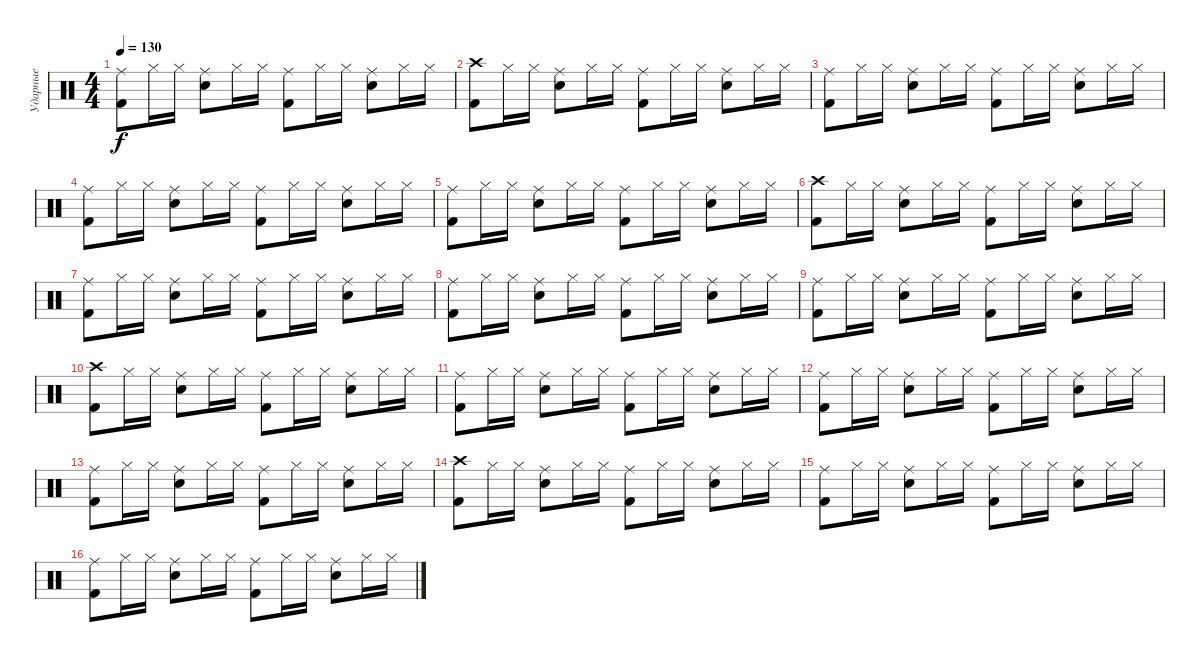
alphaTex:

\track ("Ударные" "Ударные") {instrument percussion}
\staff {score}
\articulation defaults
\ts (4 4)
\tempo 130
\clef neutral
\ks c
("Ride (middle)" "Kick (hit) 2").8{dy f} "Hi-Hat (closed)".16 "Hi-Hat (closed)".16 ("Ride (middle)" "Electric Snare (hit)").8 "Hi-Hat (closed)".16 "Hi-Hat (closed)".16 ("Ride (middle)" "Kick (hit) 2").8 "Hi-Hat (closed)".16 "Hi-Hat (closed)".16 ("Ride (middle)" "Electric Snare (hit)").8 "Hi-Hat (closed)".16 "Hi-Hat (closed)".16 |
("Crash high (hit)" "Kick (hit) 2").8 "Hi-Hat (closed)".16 "Hi-Hat (closed)".16 ("Ride (middle)" "Electric Snare (hit)").8 "Hi-Hat (closed)".16 "Hi-Hat (closed)".16 ("Ride (middle)" "Kick (hit) 2").8 "Hi-Hat (closed)".16 "Hi-Hat (closed)".16 ("Ride (middle)" "Electric Snare (hit)").8 "Hi-Hat (closed)".16 "Hi-Hat (closed)".16 |
("Ride (middle)" "Kick (hit) 2").8 "Hi-Hat (closed)".16 "Hi-Hat (closed)".16 ("Ride (middle)" "Electric Snare (hit)").8 "Hi-Hat (closed)".16 "Hi-Hat (closed)".16 ("Ride (middle)" "Kick (hit) 2").8 "Hi-Hat (closed)".16 "Hi-Hat (closed)".16 ("Ride (middle)" "Electric Snare (hit)").8 "Hi-Hat (closed)".16 "Hi-Hat (closed)".16 |
("Ride (middle)" "Kick (hit) 2").8 "Hi-Hat (closed)".16 "Hi-Hat (closed)".16 ("Ride (middle)" "Electric Snare (hit)").8 "Hi-Hat (closed)".16 "Hi-Hat (closed)".16 ("Ride (middle)" "Kick (hit) 2").8 "Hi-Hat (closed)".16 "Hi-Hat (closed)".16 ("Ride (middle)" "Electric Snare (hit)").8 "Hi-Hat (closed)".16 "Hi-Hat (closed)".16 |
("Ride (middle)" "Kick (hit) 2").8 "Hi-Hat (closed)".16 "Hi-Hat (closed)".16 ("Ride (middle)" "Electric Snare (hit)").8 "Hi-Hat (closed)".16 "Hi-Hat (closed)".16 ("Ride (middle)" "Kick (hit) 2").8 "Hi-Hat (closed)".16 "Hi-Hat (closed)".16 ("Ride (middle)" "Electric Snare (hit)").8 "Hi-Hat (closed)".16 "Hi-Hat (closed)".16 |
("Crash high (hit)" "Kick (hit) 2").8 "Hi-Hat (closed)".16 "Hi-Hat (closed)".16 ("Ride (middle)" "Electric Snare (hit)").8 "Hi-Hat (closed)".16 "Hi-Hat (closed)".16 ("Ride (middle)" "Kick (hit) 2").8 "Hi-Hat (closed)".16 "Hi-Hat (closed)".16 ("Ride (middle)" "Electric Snare (hit)").8 "Hi-Hat (closed)".16 "Hi-Hat (closed)".16 |
("Ride (middle)" "Kick (hit) 2").8 "Hi-Hat (closed)".16 "Hi-Hat (closed)".16 ("Ride (middle)" "Electric Snare (hit)").8 "Hi-Hat (closed)".16 "Hi-Hat (closed)".16 ("Ride (middle)" "Kick (hit) 2").8 "Hi-Hat (closed)".16 "Hi-Hat (closed)".16 ("Ride (middle)" "Electric Snare (hit)").8 "Hi-Hat (closed)".16 "Hi-Hat (closed)".16 |
("Ride (middle)" "Kick (hit) 2").8 "Hi-Hat (closed)".16 "Hi-Hat (closed)".16 ("Ride (middle)" "Electric Snare (hit)").8 "Hi-Hat (closed)".16 "Hi-Hat (closed)".16 ("Ride (middle)" "Kick (hit) 2").8 "Hi-Hat (closed)".16 "Hi-Hat (closed)".16 ("Ride (middle)" "Electric Snare (hit)").8 "Hi-Hat (closed)".16 "Hi-Hat (closed)".16 |
("Ride (middle)" "Kick (hit) 2").8 "Hi-Hat (closed)".16 "Hi-Hat (closed)".16 ("Ride (middle)" "Electric Snare (hit)").8 "Hi-Hat (closed)".16 "Hi-Hat (closed)".16 ("Ride (middle)" "Kick (hit) 2").8 "Hi-Hat (closed)".16 "Hi-Hat (closed)".16 ("Ride (middle)" "Electric Snare (hit)").8 "Hi-Hat (closed)".16 "Hi-Hat (closed)".16 |
("Crash high (hit)" "Kick (hit) 2").8 "Hi-Hat (closed)".16 "Hi-Hat (closed)".16 ("Ride (middle)" "Electric Snare (hit)").8 "Hi-Hat (closed)".16 "Hi-Hat (closed)".16 ("Ride (middle)" "Kick (hit) 2").8 "Hi-Hat (closed)".16 "Hi-Hat (closed)".16 ("Ride (middle)" "Electric Snare (hit)").8 "Hi-Hat (closed)".16 "Hi-Hat (closed)".16 |
("Ride (middle)" "Kick (hit) 2").8 "Hi-Hat (closed)".16 "Hi-Hat (closed)".16 ("Ride (middle)" "Electric Snare (hit)").8 "Hi-Hat (closed)".16 "Hi-Hat (closed)".16 ("Ride (middle)" "Kick (hit) 2").8 "Hi-Hat (closed)".16 "Hi-Hat (closed)".16 ("Ride (middle)" "Electric Snare (hit)").8 "Hi-Hat (closed)".16 "Hi-Hat (closed)".16 |
("Ride (middle)" "Kick (hit) 2").8 "Hi-Hat (closed)".16 "Hi-Hat (closed)".16 ("Ride (middle)" "Electric Snare (hit)").8 "Hi-Hat (closed)".16 "Hi-Hat (closed)".16 ("Ride (middle)" "Kick (hit) 2").8 "Hi-Hat (closed)".16 "Hi-Hat (closed)".16 ("Ride (middle)" "Electric Snare (hit)").8 "Hi-Hat (closed)".16 "Hi-Hat (closed)".16 |
("Ride (middle)" "Kick (hit) 2").8 "Hi-Hat (closed)".16 "Hi-Hat (closed)".16 ("Ride (middle)" "Electric Snare (hit)").8 "Hi-Hat (closed)".16 "Hi-Hat (closed)".16 ("Ride (middle)" "Kick (hit) 2").8 "Hi-Hat (closed)".16 "Hi-Hat (closed)".16 ("Ride (middle)" "Electric Snare (hit)").8 "Hi-Hat (closed)".16 "Hi-Hat (closed)".16 |
("Crash high (hit)" "Kick (hit) 2").8 "Hi-Hat (closed)".16 "Hi-Hat (closed)".16 ("Ride (middle)" "Electric Snare (hit)").8 "Hi-Hat (closed)".16 "Hi-Hat (closed)".16 ("Ride (middle)" "Kick (hit) 2").8 "Hi-Hat (closed)".16 "Hi-Hat (closed)".16 ("Ride (middle)" "Electric Snare (hit)").8 "Hi-Hat (closed)".16 "Hi-Hat (closed)".16 |
("Ride (middle)" "Kick (hit) 2").8 "Hi-Hat (closed)".16 "Hi-Hat (closed)".16 ("Ride (middle)" "Electric Snare (hit)").8 "Hi-Hat (closed)".16 "Hi-Hat (closed)".16 ("Ride (middle)" "Kick (hit) 2").8 "Hi-Hat (closed)".16 "Hi-Hat (closed)".16 ("Ride (middle)" "Electric Snare (hit)").8 "Hi-Hat (closed)".16 "Hi-Hat (closed)".16 |
("Ride (middle)" "Kick (hit) 2").8 "Hi-Hat (closed)".16 "Hi-Hat (closed)".16 ("Ride (middle)" "Electric Snare (hit)").8 "Hi-Hat (closed)".16 "Hi-Hat (closed)".16 ("Ride (middle)" "Kick (hit) 2").8 "Hi-Hat (closed)".16 "Hi-Hat (closed)".16 ("Ride (middle)" "Electric Snare (hit)").8 "Hi-Hat (closed)".16 "Hi-Hat (closed)".16
